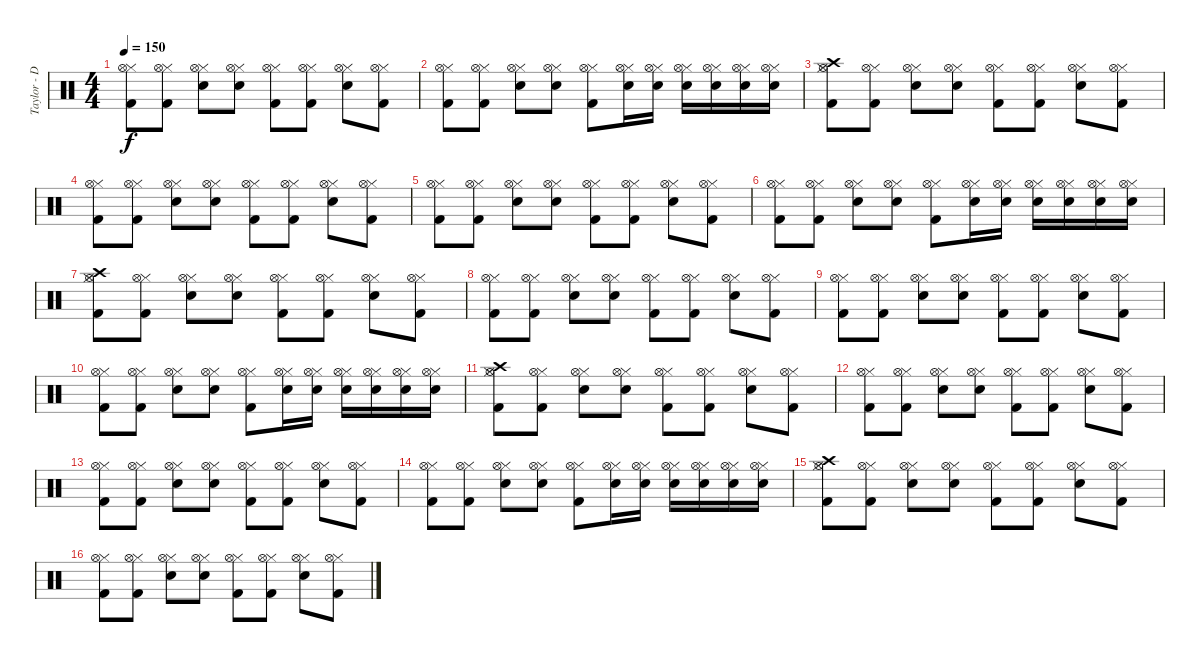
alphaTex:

\track ("Taylor - Drums" "Taylor - D") {instrument percussion}
\staff {score}
\articulation defaults
\ts (4 4)
\tempo 150
\clef neutral
\ks c
("Kick (hit) 2" "Hi-Hat (closed)" "Hi-Hat (open)").8{dy f} ("Kick (hit) 2" "Hi-Hat (closed)" "Hi-Hat (open)").8 ("Snare (hit) 2" "Hi-Hat (closed)" "Hi-Hat (open)").8 ("Snare (hit) 2" "Hi-Hat (closed)" "Hi-Hat (open)").8 ("Kick (hit) 2" "Hi-Hat (closed)" "Hi-Hat (open)").8 ("Kick (hit) 2" "Hi-Hat (closed)" "Hi-Hat (open)").8 ("Snare (hit) 2" "Hi-Hat (closed)" "Hi-Hat (open)").8 ("Kick (hit) 2" "Hi-Hat (closed)" "Hi-Hat (open)").8 |
("Kick (hit) 2" "Hi-Hat (closed)" "Hi-Hat (open)").8 ("Kick (hit) 2" "Hi-Hat (closed)" "Hi-Hat (open)").8 ("Snare (hit) 2" "Hi-Hat (closed)" "Hi-Hat (open)").8 ("Snare (hit) 2" "Hi-Hat (closed)" "Hi-Hat (open)").8 ("Kick (hit) 2" "Hi-Hat (closed)" "Hi-Hat (open)").8 ("Snare (hit) 2" "Hi-Hat (closed)" "Hi-Hat (open)").16 ("Snare (hit) 2" "Hi-Hat (closed)" "Hi-Hat (open)").16 ("Snare (hit) 2" "Hi-Hat (closed)" "Hi-Hat (open)").16 ("Snare (hit) 2" "Hi-Hat (closed)" "Hi-Hat (open)").16 ("Snare (hit) 2" "Hi-Hat (closed)" "Hi-Hat (open)").16 ("Snare (hit) 2" "Hi-Hat (closed)" "Hi-Hat (open)").16 |
("Kick (hit) 2" "Hi-Hat (closed)" "Hi-Hat (open)" "Crash high (hit)").8 ("Kick (hit) 2" "Hi-Hat (closed)" "Hi-Hat (open)").8 ("Snare (hit) 2" "Hi-Hat (closed)" "Hi-Hat (open)").8 ("Snare (hit) 2" "Hi-Hat (closed)" "Hi-Hat (open)").8 ("Kick (hit) 2" "Hi-Hat (closed)" "Hi-Hat (open)").8 ("Kick (hit) 2" "Hi-Hat (closed)" "Hi-Hat (open)").8 ("Snare (hit) 2" "Hi-Hat (closed)" "Hi-Hat (open)").8 ("Kick (hit) 2" "Hi-Hat (closed)" "Hi-Hat (open)").8 |
("Kick (hit) 2" "Hi-Hat (closed)" "Hi-Hat (open)").8 ("Kick (hit) 2" "Hi-Hat (closed)" "Hi-Hat (open)").8 ("Snare (hit) 2" "Hi-Hat (closed)" "Hi-Hat (open)").8 ("Snare (hit) 2" "Hi-Hat (closed)" "Hi-Hat (open)").8 ("Kick (hit) 2" "Hi-Hat (closed)" "Hi-Hat (open)").8 ("Kick (hit) 2" "Hi-Hat (closed)" "Hi-Hat (open)").8 ("Snare (hit) 2" "Hi-Hat (closed)" "Hi-Hat (open)").8 ("Kick (hit) 2" "Hi-Hat (closed)" "Hi-Hat (open)").8 |
("Kick (hit) 2" "Hi-Hat (closed)" "Hi-Hat (open)").8 ("Kick (hit) 2" "Hi-Hat (closed)" "Hi-Hat (open)").8 ("Snare (hit) 2" "Hi-Hat (closed)" "Hi-Hat (open)").8 ("Snare (hit) 2" "Hi-Hat (closed)" "Hi-Hat (open)").8 ("Kick (hit) 2" "Hi-Hat (closed)" "Hi-Hat (open)").8 ("Kick (hit) 2" "Hi-Hat (closed)" "Hi-Hat (open)").8 ("Snare (hit) 2" "Hi-Hat (closed)" "Hi-Hat (open)").8 ("Kick (hit) 2" "Hi-Hat (closed)" "Hi-Hat (open)").8 |
("Kick (hit) 2" "Hi-Hat (closed)" "Hi-Hat (open)").8 ("Kick (hit) 2" "Hi-Hat (closed)" "Hi-Hat (open)").8 ("Snare (hit) 2" "Hi-Hat (closed)" "Hi-Hat (open)").8 ("Snare (hit) 2" "Hi-Hat (closed)" "Hi-Hat (open)").8 ("Kick (hit) 2" "Hi-Hat (closed)" "Hi-Hat (open)").8 ("Snare (hit) 2" "Hi-Hat (closed)" "Hi-Hat (open)").16 ("Snare (hit) 2" "Hi-Hat (closed)" "Hi-Hat (open)").16 ("Snare (hit) 2" "Hi-Hat (closed)" "Hi-Hat (open)").16 ("Snare (hit) 2" "Hi-Hat (closed)" "Hi-Hat (open)").16 ("Snare (hit) 2" "Hi-Hat (closed)" "Hi-Hat (open)").16 ("Snare (hit) 2" "Hi-Hat (closed)" "Hi-Hat (open)").16 |
("Kick (hit) 2" "Hi-Hat (closed)" "Hi-Hat (open)" "Crash high (hit)").8 ("Kick (hit) 2" "Hi-Hat (closed)" "Hi-Hat (open)").8 ("Snare (hit) 2" "Hi-Hat (closed)" "Hi-Hat (open)").8 ("Snare (hit) 2" "Hi-Hat (closed)" "Hi-Hat (open)").8 ("Kick (hit) 2" "Hi-Hat (closed)" "Hi-Hat (open)").8 ("Kick (hit) 2" "Hi-Hat (closed)" "Hi-Hat (open)").8 ("Snare (hit) 2" "Hi-Hat (closed)" "Hi-Hat (open)").8 ("Kick (hit) 2" "Hi-Hat (closed)" "Hi-Hat (open)").8 |
("Kick (hit) 2" "Hi-Hat (closed)" "Hi-Hat (open)").8 ("Kick (hit) 2" "Hi-Hat (closed)" "Hi-Hat (open)").8 ("Snare (hit) 2" "Hi-Hat (closed)" "Hi-Hat (open)").8 ("Snare (hit) 2" "Hi-Hat (closed)" "Hi-Hat (open)").8 ("Kick (hit) 2" "Hi-Hat (closed)" "Hi-Hat (open)").8 ("Kick (hit) 2" "Hi-Hat (closed)" "Hi-Hat (open)").8 ("Snare (hit) 2" "Hi-Hat (closed)" "Hi-Hat (open)").8 ("Kick (hit) 2" "Hi-Hat (closed)" "Hi-Hat (open)").8 |
("Kick (hit) 2" "Hi-Hat (closed)" "Hi-Hat (open)").8 ("Kick (hit) 2" "Hi-Hat (closed)" "Hi-Hat (open)").8 ("Snare (hit) 2" "Hi-Hat (closed)" "Hi-Hat (open)").8 ("Snare (hit) 2" "Hi-Hat (closed)" "Hi-Hat (open)").8 ("Kick (hit) 2" "Hi-Hat (closed)" "Hi-Hat (open)").8 ("Kick (hit) 2" "Hi-Hat (closed)" "Hi-Hat (open)").8 ("Snare (hit) 2" "Hi-Hat (closed)" "Hi-Hat (open)").8 ("Kick (hit) 2" "Hi-Hat (closed)" "Hi-Hat (open)").8 |
("Kick (hit) 2" "Hi-Hat (closed)" "Hi-Hat (open)").8 ("Kick (hit) 2" "Hi-Hat (closed)" "Hi-Hat (open)").8 ("Snare (hit) 2" "Hi-Hat (closed)" "Hi-Hat (open)").8 ("Snare (hit) 2" "Hi-Hat (closed)" "Hi-Hat (open)").8 ("Kick (hit) 2" "Hi-Hat (closed)" "Hi-Hat (open)").8 ("Snare (hit) 2" "Hi-Hat (closed)" "Hi-Hat (open)").16 ("Snare (hit) 2" "Hi-Hat (closed)" "Hi-Hat (open)").16 ("Snare (hit) 2" "Hi-Hat (closed)" "Hi-Hat (open)").16 ("Snare (hit) 2" "Hi-Hat (closed)" "Hi-Hat (open)").16 ("Snare (hit) 2" "Hi-Hat (closed)" "Hi-Hat (open)").16 ("Snare (hit) 2" "Hi-Hat (closed)" "Hi-Hat (open)").16 |
("Kick (hit) 2" "Hi-Hat (closed)" "Hi-Hat (open)" "Crash high (hit)").8 ("Kick (hit) 2" "Hi-Hat (closed)" "Hi-Hat (open)").8 ("Snare (hit) 2" "Hi-Hat (closed)" "Hi-Hat (open)").8 ("Snare (hit) 2" "Hi-Hat (closed)" "Hi-Hat (open)").8 ("Kick (hit) 2" "Hi-Hat (closed)" "Hi-Hat (open)").8 ("Kick (hit) 2" "Hi-Hat (closed)" "Hi-Hat (open)").8 ("Snare (hit) 2" "Hi-Hat (closed)" "Hi-Hat (open)").8 ("Kick (hit) 2" "Hi-Hat (closed)" "Hi-Hat (open)").8 |
("Kick (hit) 2" "Hi-Hat (closed)" "Hi-Hat (open)").8 ("Kick (hit) 2" "Hi-Hat (closed)" "Hi-Hat (open)").8 ("Snare (hit) 2" "Hi-Hat (closed)" "Hi-Hat (open)").8 ("Snare (hit) 2" "Hi-Hat (closed)" "Hi-Hat (open)").8 ("Kick (hit) 2" "Hi-Hat (closed)" "Hi-Hat (open)").8 ("Kick (hit) 2" "Hi-Hat (closed)" "Hi-Hat (open)").8 ("Snare (hit) 2" "Hi-Hat (closed)" "Hi-Hat (open)").8 ("Kick (hit) 2" "Hi-Hat (closed)" "Hi-Hat (open)").8 |
("Kick (hit) 2" "Hi-Hat (closed)" "Hi-Hat (open)").8 ("Kick (hit) 2" "Hi-Hat (closed)" "Hi-Hat (open)").8 ("Snare (hit) 2" "Hi-Hat (closed)" "Hi-Hat (open)").8 ("Snare (hit) 2" "Hi-Hat (closed)" "Hi-Hat (open)").8 ("Kick (hit) 2" "Hi-Hat (closed)" "Hi-Hat (open)").8 ("Kick (hit) 2" "Hi-Hat (closed)" "Hi-Hat (open)").8 ("Snare (hit) 2" "Hi-Hat (closed)" "Hi-Hat (open)").8 ("Kick (hit) 2" "Hi-Hat (closed)" "Hi-Hat (open)").8 |
("Kick (hit) 2" "Hi-Hat (closed)" "Hi-Hat (open)").8 ("Kick (hit) 2" "Hi-Hat (closed)" "Hi-Hat (open)").8 ("Snare (hit) 2" "Hi-Hat (closed)" "Hi-Hat (open)").8 ("Snare (hit) 2" "Hi-Hat (closed)" "Hi-Hat (open)").8 ("Kick (hit) 2" "Hi-Hat (closed)" "Hi-Hat (open)").8 ("Snare (hit) 2" "Hi-Hat (closed)" "Hi-Hat (open)").16 ("Snare (hit) 2" "Hi-Hat (closed)" "Hi-Hat (open)").16 ("Snare (hit) 2" "Hi-Hat (closed)" "Hi-Hat (open)").16 ("Snare (hit) 2" "Hi-Hat (closed)" "Hi-Hat (open)").16 ("Snare (hit) 2" "Hi-Hat (closed)" "Hi-Hat (open)").16 ("Snare (hit) 2" "Hi-Hat (closed)" "Hi-Hat (open)").16 |
("Kick (hit) 2" "Hi-Hat (closed)" "Hi-Hat (open)" "Crash high (hit)").8 ("Kick (hit) 2" "Hi-Hat (closed)" "Hi-Hat (open)").8 ("Snare (hit) 2" "Hi-Hat (closed)" "Hi-Hat (open)").8 ("Snare (hit) 2" "Hi-Hat (closed)" "Hi-Hat (open)").8 ("Kick (hit) 2" "Hi-Hat (closed)" "Hi-Hat (open)").8 ("Kick (hit) 2" "Hi-Hat (closed)" "Hi-Hat (open)").8 ("Snare (hit) 2" "Hi-Hat (closed)" "Hi-Hat (open)").8 ("Kick (hit) 2" "Hi-Hat (closed)" "Hi-Hat (open)").8 |
("Kick (hit) 2" "Hi-Hat (closed)" "Hi-Hat (open)").8 ("Kick (hit) 2" "Hi-Hat (closed)" "Hi-Hat (open)").8 ("Snare (hit) 2" "Hi-Hat (closed)" "Hi-Hat (open)").8 ("Snare (hit) 2" "Hi-Hat (closed)" "Hi-Hat (open)").8 ("Kick (hit) 2" "Hi-Hat (closed)" "Hi-Hat (open)").8 ("Kick (hit) 2" "Hi-Hat (closed)" "Hi-Hat (open)").8 ("Snare (hit) 2" "Hi-Hat (closed)" "Hi-Hat (open)").8 ("Kick (hit) 2" "Hi-Hat (closed)" "Hi-Hat (open)").8
